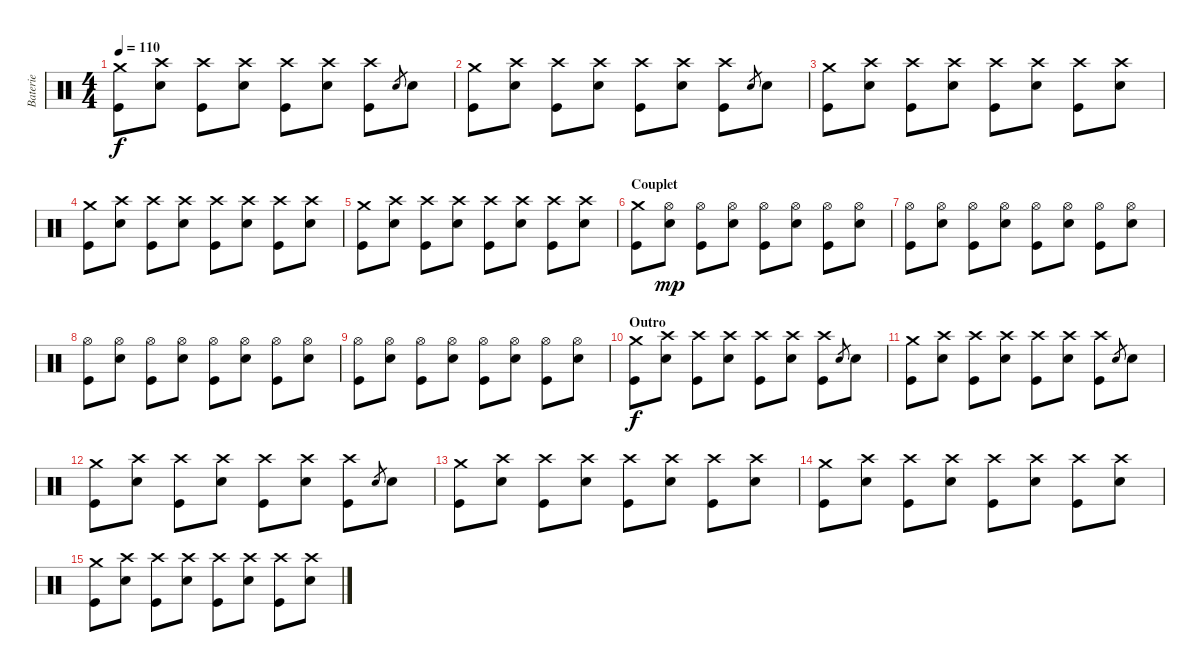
\track ("Baterie" "Baterie") {instrument percussion}
\staff {score}
\articulation defaults
\ts (4 4)
\tempo 110
\clef neutral
\ks c
("Crash medium (hit)" "Kick (hit)").8{dy f} ("Crash high (hit)" "Electric Snare (hit)").8 ("Crash high (hit)" "Kick (hit)").8 ("Crash high (hit)" "Electric Snare (hit)").8 ("Crash high (hit)" "Kick (hit)").8 ("Crash high (hit)" "Electric Snare (hit)").8 ("Crash high (hit)" "Kick (hit)").8 "Electric Snare (hit)".8{gr} "Electric Snare (hit)".8 |
("Crash medium (hit)" "Kick (hit)").8 ("Crash high (hit)" "Electric Snare (hit)").8 ("Crash high (hit)" "Kick (hit)").8 ("Crash high (hit)" "Electric Snare (hit)").8 ("Crash high (hit)" "Kick (hit)").8 ("Crash high (hit)" "Electric Snare (hit)").8 ("Crash high (hit)" "Kick (hit)").8 "Electric Snare (hit)".8{gr} "Electric Snare (hit)".8 |
("Crash medium (hit)" "Kick (hit)").8 ("Crash high (hit)" "Electric Snare (hit)").8 ("Crash high (hit)" "Kick (hit)").8 ("Crash high (hit)" "Electric Snare (hit)").8 ("Crash high (hit)" "Kick (hit)").8 ("Crash high (hit)" "Electric Snare (hit)").8 ("Crash high (hit)" "Kick (hit)").8 ("Crash high (hit)" "Electric Snare (hit)").8 |
("Crash medium (hit)" "Kick (hit)").8 ("Crash high (hit)" "Electric Snare (hit)").8 ("Crash high (hit)" "Kick (hit)").8 ("Crash high (hit)" "Electric Snare (hit)").8 ("Crash high (hit)" "Kick (hit)").8 ("Crash high (hit)" "Electric Snare (hit)").8 ("Crash high (hit)" "Kick (hit)").8 ("Crash high (hit)" "Electric Snare (hit)").8 |
("Crash medium (hit)" "Kick (hit)").8 ("Crash high (hit)" "Electric Snare (hit)").8 ("Crash high (hit)" "Kick (hit)").8 ("Crash high (hit)" "Electric Snare (hit)").8 ("Crash high (hit)" "Kick (hit)").8 ("Crash high (hit)" "Electric Snare (hit)").8 ("Crash high (hit)" "Kick (hit)").8 ("Crash high (hit)" "Electric Snare (hit)").8 |
\section ("" "Couplet ")
("Crash medium (hit)" "Kick (hit)").8 ("Hi-Hat (open)" "Electric Snare (hit)").8{dy mp} ("Hi-Hat (open)" "Kick (hit)").8 ("Hi-Hat (open)" "Electric Snare (hit)").8 ("Hi-Hat (open)" "Kick (hit)").8 ("Hi-Hat (open)" "Electric Snare (hit)").8 ("Hi-Hat (open)" "Kick (hit)").8 ("Hi-Hat (open)" "Electric Snare (hit)").8 |
("Hi-Hat (open)" "Kick (hit)").8 ("Hi-Hat (open)" "Electric Snare (hit)").8 ("Hi-Hat (open)" "Kick (hit)").8 ("Hi-Hat (open)" "Electric Snare (hit)").8 ("Hi-Hat (open)" "Kick (hit)").8 ("Hi-Hat (open)" "Electric Snare (hit)").8 ("Hi-Hat (open)" "Kick (hit)").8 ("Hi-Hat (open)" "Electric Snare (hit)").8 |
("Hi-Hat (open)" "Kick (hit)").8 ("Hi-Hat (open)" "Electric Snare (hit)").8 ("Hi-Hat (open)" "Kick (hit)").8 ("Hi-Hat (open)" "Electric Snare (hit)").8 ("Hi-Hat (open)" "Kick (hit)").8 ("Hi-Hat (open)" "Electric Snare (hit)").8 ("Hi-Hat (open)" "Kick (hit)").8 ("Hi-Hat (open)" "Electric Snare (hit)").8 |
("Hi-Hat (open)" "Kick (hit)").8 ("Hi-Hat (open)" "Electric Snare (hit)").8 ("Hi-Hat (open)" "Kick (hit)").8 ("Hi-Hat (open)" "Electric Snare (hit)").8 ("Hi-Hat (open)" "Kick (hit)").8 ("Hi-Hat (open)" "Electric Snare (hit)").8 ("Hi-Hat (open)" "Kick (hit)").8 ("Hi-Hat (open)" "Electric Snare (hit)").8 |
\section ("" "Outro")
("Crash medium (hit)" "Kick (hit)").8{dy f} ("Crash high (hit)" "Electric Snare (hit)").8 ("Crash high (hit)" "Kick (hit)").8 ("Crash high (hit)" "Electric Snare (hit)").8 ("Crash high (hit)" "Kick (hit)").8 ("Crash high (hit)" "Electric Snare (hit)").8 ("Crash high (hit)" "Kick (hit)").8 "Electric Snare (hit)".8{gr} "Electric Snare (hit)".8 |
("Crash medium (hit)" "Kick (hit)").8 ("Crash high (hit)" "Electric Snare (hit)").8 ("Crash high (hit)" "Kick (hit)").8 ("Crash high (hit)" "Electric Snare (hit)").8 ("Crash high (hit)" "Kick (hit)").8 ("Crash high (hit)" "Electric Snare (hit)").8 ("Crash high (hit)" "Kick (hit)").8 "Electric Snare (hit)".8{gr} "Electric Snare (hit)".8 |
("Crash medium (hit)" "Kick (hit)").8 ("Crash high (hit)" "Electric Snare (hit)").8 ("Crash high (hit)" "Kick (hit)").8 ("Crash high (hit)" "Electric Snare (hit)").8 ("Crash high (hit)" "Kick (hit)").8 ("Crash high (hit)" "Electric Snare (hit)").8 ("Crash high (hit)" "Kick (hit)").8 "Electric Snare (hit)".8{gr} "Electric Snare (hit)".8 |
("Crash medium (hit)" "Kick (hit)").8 ("Crash high (hit)" "Electric Snare (hit)").8 ("Crash high (hit)" "Kick (hit)").8 ("Crash high (hit)" "Electric Snare (hit)").8 ("Crash high (hit)" "Kick (hit)").8 ("Crash high (hit)" "Electric Snare (hit)").8 ("Crash high (hit)" "Kick (hit)").8 ("Crash high (hit)" "Electric Snare (hit)").8 |
("Crash medium (hit)" "Kick (hit)").8 ("Crash high (hit)" "Electric Snare (hit)").8 ("Crash high (hit)" "Kick (hit)").8 ("Crash high (hit)" "Electric Snare (hit)").8 ("Crash high (hit)" "Kick (hit)").8 ("Crash high (hit)" "Electric Snare (hit)").8 ("Crash high (hit)" "Kick (hit)").8 ("Crash high (hit)" "Electric Snare (hit)").8 |
("Crash medium (hit)" "Kick (hit)").8 ("Crash high (hit)" "Electric Snare (hit)").8 ("Crash high (hit)" "Kick (hit)").8 ("Crash high (hit)" "Electric Snare (hit)").8 ("Crash high (hit)" "Kick (hit)").8 ("Crash high (hit)" "Electric Snare (hit)").8 ("Crash high (hit)" "Kick (hit)").8 ("Crash high (hit)" "Electric Snare (hit)").8
